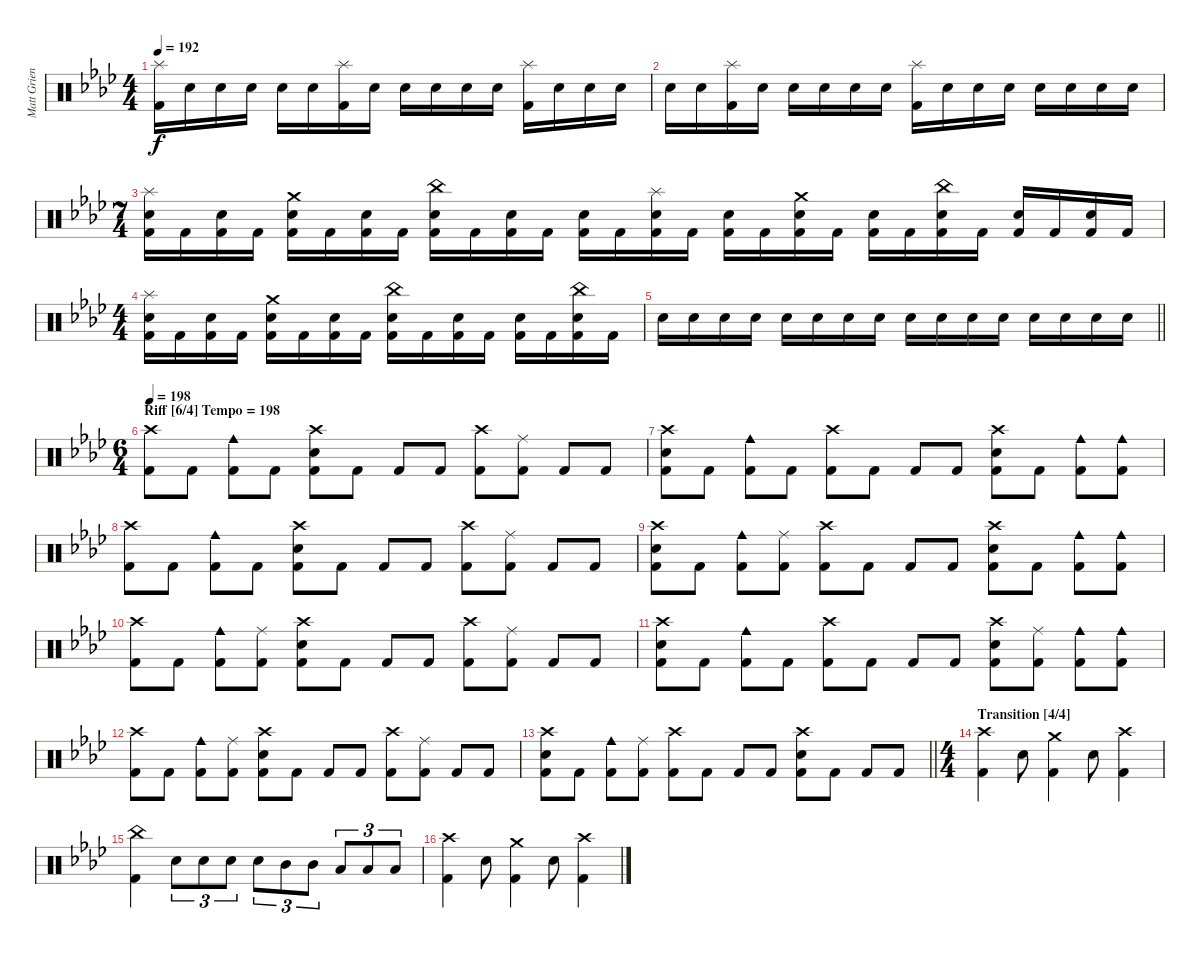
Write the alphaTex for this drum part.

\track ("Matt Griener [Drum Kit]" "Matt Grien") {instrument percussion}
\staff {score}
\articulation defaults
\ts (4 4)
\tempo 192
\clef neutral
\ks fminor
("Splash (hit)" "Kick (hit) 2").16{dy f} "Electric Snare (hit)".16 "Electric Snare (hit)".16 "Electric Snare (hit)".16 "Electric Snare (hit)".16 "Electric Snare (hit)".16 ("Splash (hit)" "Kick (hit) 2").16 "Electric Snare (hit)".16 "Electric Snare (hit)".16 "Electric Snare (hit)".16 "Electric Snare (hit)".16 "Electric Snare (hit)".16 ("Splash (hit)" "Kick (hit) 2").16 "Electric Snare (hit)".16 "Electric Snare (hit)".16 "Electric Snare (hit)".16 |
"Electric Snare (hit)".16 "Electric Snare (hit)".16 ("Splash (hit)" "Kick (hit) 2").16 "Electric Snare (hit)".16 "Electric Snare (hit)".16 "Electric Snare (hit)".16 "Electric Snare (hit)".16 "Electric Snare (hit)".16 ("Splash (hit)" "Kick (hit) 2").16 "Electric Snare (hit)".16 "Electric Snare (hit)".16 "Electric Snare (hit)".16 "Electric Snare (hit)".16 "Electric Snare (hit)".16 "Electric Snare (hit)".16 "Electric Snare (hit)".16 |
\ts (7 4)
("Splash (hit)" "Electric Snare (hit)" "Kick (hit) 2").16 "Kick (hit) 2".16 ("Electric Snare (hit)" "Kick (hit) 2").16 "Kick (hit) 2".16 ("Crash medium (hit)" "Electric Snare (hit)" "Kick (hit) 2").16 "Kick (hit) 2".16 ("Electric Snare (hit)" "Kick (hit) 2").16 "Kick (hit) 2".16 ("China (hit)" "Electric Snare (hit)" "Kick (hit) 2").16 "Kick (hit) 2".16 ("Electric Snare (hit)" "Kick (hit) 2").16 "Kick (hit) 2".16 ("Electric Snare (hit)" "Kick (hit) 2").16 "Kick (hit) 2".16 ("Splash (hit)" "Electric Snare (hit)" "Kick (hit) 2").16 "Kick (hit) 2".16 ("Electric Snare (hit)" "Kick (hit) 2").16 "Kick (hit) 2".16 ("Crash medium (hit)" "Electric Snare (hit)" "Kick (hit) 2").16 "Kick (hit) 2".16 ("Electric Snare (hit)" "Kick (hit) 2").16 "Kick (hit) 2".16 ("China (hit)" "Electric Snare (hit)" "Kick (hit) 2").16 "Kick (hit) 2".16 ("Electric Snare (hit)" "Kick (hit) 2").16 "Kick (hit) 2".16 ("Electric Snare (hit)" "Kick (hit) 2").16 "Kick (hit) 2".16 |
\ts (4 4)
("Splash (hit)" "Electric Snare (hit)" "Kick (hit) 2").16 "Kick (hit) 2".16 ("Electric Snare (hit)" "Kick (hit) 2").16 "Kick (hit) 2".16 ("Crash medium (hit)" "Electric Snare (hit)" "Kick (hit) 2").16 "Kick (hit) 2".16 ("Electric Snare (hit)" "Kick (hit) 2").16 "Kick (hit) 2".16 ("China (hit)" "Electric Snare (hit)" "Kick (hit) 2").16 "Kick (hit) 2".16 ("Electric Snare (hit)" "Kick (hit) 2").16 "Kick (hit) 2".16 ("Electric Snare (hit)" "Kick (hit) 2").16 "Kick (hit) 2".16 ("China (hit)" "Electric Snare (hit)" "Kick (hit) 2").16 "Kick (hit) 2".16 |
\barLineRight lightlight "Electric Snare (hit)".16 "Electric Snare (hit)".16 "Electric Snare (hit)".16 "Electric Snare (hit)".16 "Electric Snare (hit)".16 "Electric Snare (hit)".16 "Electric Snare (hit)".16 "Electric Snare (hit)".16 "Electric Snare (hit)".16 "Electric Snare (hit)".16 "Electric Snare (hit)".16 "Electric Snare (hit)".16 "Electric Snare (hit)".16 "Electric Snare (hit)".16 "Electric Snare (hit)".16 "Electric Snare (hit)".16
|
\ts (6 4)
\section ("" "Riff [6/4] Tempo = 198")
\tempo 198
("Crash high (hit)" "Kick (hit) 2").8 "Kick (hit) 2".8 ("Cowbell medium (hit)" "Kick (hit) 2").8 "Kick (hit) 2".8 ("Crash high (hit)" "Electric Snare (hit)" "Kick (hit) 2").8 "Kick (hit) 2".8 "Kick (hit) 2".8 "Kick (hit) 2".8 ("Crash high (hit)" "Kick (hit) 2").8 ("Ride (middle)" "Kick (hit) 2").8 "Kick (hit) 2".8 "Kick (hit) 2".8 |
("Crash high (hit)" "Electric Snare (hit)" "Kick (hit) 2").8 "Kick (hit) 2".8 ("Cowbell medium (hit)" "Kick (hit) 2").8 "Kick (hit) 2".8 ("Crash high (hit)" "Kick (hit) 2").8 "Kick (hit) 2".8 "Kick (hit) 2".8 "Kick (hit) 2".8 ("Crash high (hit)" "Electric Snare (hit)" "Kick (hit) 2").8 "Kick (hit) 2".8 ("Cowbell medium (hit)" "Kick (hit) 2").8 ("Cowbell medium (hit)" "Kick (hit) 2").8 |
("Crash high (hit)" "Kick (hit) 2").8 "Kick (hit) 2".8 ("Cowbell medium (hit)" "Kick (hit) 2").8 "Kick (hit) 2".8 ("Crash high (hit)" "Electric Snare (hit)" "Kick (hit) 2").8 "Kick (hit) 2".8 "Kick (hit) 2".8 "Kick (hit) 2".8 ("Crash high (hit)" "Kick (hit) 2").8 ("Ride (middle)" "Kick (hit) 2").8 "Kick (hit) 2".8 "Kick (hit) 2".8 |
("Crash high (hit)" "Electric Snare (hit)" "Kick (hit) 2").8 "Kick (hit) 2".8 ("Cowbell medium (hit)" "Kick (hit) 2").8 ("Ride (middle)" "Kick (hit) 2").8 ("Crash high (hit)" "Kick (hit) 2").8 "Kick (hit) 2".8 "Kick (hit) 2".8 "Kick (hit) 2".8 ("Crash high (hit)" "Electric Snare (hit)" "Kick (hit) 2").8 "Kick (hit) 2".8 ("Cowbell medium (hit)" "Kick (hit) 2").8 ("Cowbell medium (hit)" "Kick (hit) 2").8 |
("Crash high (hit)" "Kick (hit) 2").8 "Kick (hit) 2".8 ("Cowbell medium (hit)" "Kick (hit) 2").8 ("Ride (middle)" "Kick (hit) 2").8 ("Crash high (hit)" "Electric Snare (hit)" "Kick (hit) 2").8 "Kick (hit) 2".8 "Kick (hit) 2".8 "Kick (hit) 2".8 ("Crash high (hit)" "Kick (hit) 2").8 ("Ride (middle)" "Kick (hit) 2").8 "Kick (hit) 2".8 "Kick (hit) 2".8 |
("Crash high (hit)" "Electric Snare (hit)" "Kick (hit) 2").8 "Kick (hit) 2".8 ("Cowbell medium (hit)" "Kick (hit) 2").8 "Kick (hit) 2".8 ("Crash high (hit)" "Kick (hit) 2").8 "Kick (hit) 2".8 "Kick (hit) 2".8 "Kick (hit) 2".8 ("Crash high (hit)" "Electric Snare (hit)" "Kick (hit) 2").8 ("Ride (middle)" "Kick (hit) 2").8 ("Cowbell medium (hit)" "Kick (hit) 2").8 ("Cowbell medium (hit)" "Kick (hit) 2").8 |
("Crash high (hit)" "Kick (hit) 2").8 "Kick (hit) 2".8 ("Cowbell medium (hit)" "Kick (hit) 2").8 ("Ride (middle)" "Kick (hit) 2").8 ("Crash high (hit)" "Electric Snare (hit)" "Kick (hit) 2").8 "Kick (hit) 2".8 "Kick (hit) 2".8 "Kick (hit) 2".8 ("Crash high (hit)" "Kick (hit) 2").8 ("Ride (middle)" "Kick (hit) 2").8 "Kick (hit) 2".8 "Kick (hit) 2".8 |
\barLineRight lightlight
("Crash high (hit)" "Electric Snare (hit)" "Kick (hit) 2").8 "Kick (hit) 2".8 ("Cowbell medium (hit)" "Kick (hit) 2").8 ("Ride (middle)" "Kick (hit) 2").8 ("Crash high (hit)" "Kick (hit) 2").8 "Kick (hit) 2".8 "Kick (hit) 2".8 "Kick (hit) 2".8 ("Crash high (hit)" "Electric Snare (hit)" "Kick (hit) 2").8 "Kick (hit) 2".8 "Kick (hit) 2".8 "Kick (hit) 2".8 |
\ts (4 4)
\section ("" "Transition [4/4]")
("Crash high (hit)" "Kick (hit) 2").4 "Electric Snare (hit)".8 ("Crash medium (hit)" "Kick (hit) 2").4 "Electric Snare (hit)".8 ("Crash high (hit)" "Kick (hit) 2").4 |
("China (hit)" "Kick (hit) 2").4 "Electric Snare (hit)".8{tu (3 2)} "Electric Snare (hit)".8{tu (3 2)} "Electric Snare (hit)".8{tu (3 2)} "Electric Snare (hit)".8{tu (3 2)} "Mid Tom (hit)".8{tu (3 2)} "Mid Tom (hit)".8{tu (3 2)} "Low Tom (hit)".8{tu (3 2)} "Low Tom (hit)".8{tu (3 2)} "Low Floor Tom (hit)".8{tu (3 2)} |
("Crash high (hit)" "Kick (hit) 2").4 "Electric Snare (hit)".8 ("Crash medium (hit)" "Kick (hit) 2").4 "Electric Snare (hit)".8 ("Crash high (hit)" "Kick (hit) 2").4
